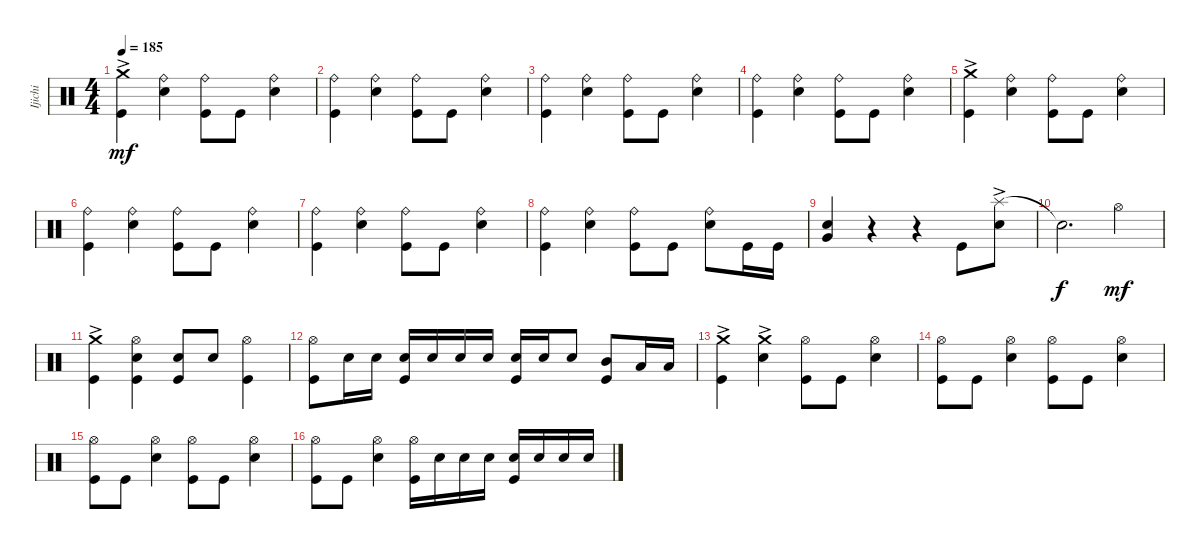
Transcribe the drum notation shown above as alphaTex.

\track ("Ijichi" "Ijichi") {instrument percussion}
\staff {score}
\articulation defaults
\ts (4 4)
\tempo 185
\clef neutral
\ks c
("Crash medium (hit)"{ac} "Kick (hit)").4{dy mf} ("Ride (bell)" "Snare (hit) 2").4 ("Ride (bell)" "Kick (hit)").8 "Kick (hit)".8 ("Ride (bell)" "Snare (hit) 2").4 |
("Ride (bell)" "Kick (hit)").4 ("Ride (bell)" "Snare (hit) 2").4 ("Ride (bell)" "Kick (hit)").8 "Kick (hit)".8 ("Ride (bell)" "Snare (hit) 2").4 |
("Ride (bell)" "Kick (hit)").4 ("Ride (bell)" "Snare (hit) 2").4 ("Ride (bell)" "Kick (hit)").8 "Kick (hit)".8 ("Ride (bell)" "Snare (hit) 2").4 |
("Ride (bell)" "Kick (hit)").4 ("Ride (bell)" "Snare (hit) 2").4 ("Ride (bell)" "Kick (hit)").8 "Kick (hit)".8 ("Ride (bell)" "Snare (hit) 2").4 |
("Crash medium (hit)"{ac} "Kick (hit)").4 ("Ride (bell)" "Snare (hit) 2").4 ("Ride (bell)" "Kick (hit)").8 "Kick (hit)".8 ("Ride (bell)" "Snare (hit) 2").4 |
("Ride (bell)" "Kick (hit)").4 ("Ride (bell)" "Snare (hit) 2").4 ("Ride (bell)" "Kick (hit)").8 "Kick (hit)".8 ("Ride (bell)" "Snare (hit) 2").4 |
("Ride (bell)" "Kick (hit)").4 ("Ride (bell)" "Snare (hit) 2").4 ("Ride (bell)" "Kick (hit)").8 "Kick (hit)".8 ("Ride (bell)" "Snare (hit) 2").4 |
("Ride (bell)" "Kick (hit)").4 ("Ride (bell)" "Snare (hit) 2").4 ("Ride (bell)" "Kick (hit)").8 "Kick (hit)".8 ("Ride (bell)" "Snare (hit) 2").8 "Kick (hit)".16 "Kick (hit)".16 |
("Snare (hit) 2" "Very Low Tom (hit)").4 r.4 r.4 "Kick (hit)".8 ("Splash (hit)"{ac} "Snare (hit) 2").8 |
"Snare (hit)"{t}.2{d dy f} "Hi-Hat (open)".4{dy mf} |
("Crash medium (hit)"{ac} "Kick (hit)").4 ("Hi-Hat (open)" "Snare (hit) 2" "Kick (hit)").4 ("Snare (hit) 2" "Kick (hit)").8 "Snare (hit) 2".8 ("Hi-Hat (open)" "Kick (hit)").4 |
("Hi-Hat (open)" "Kick (hit)").8 "Snare (hit) 2".16 "Snare (hit) 2".16 ("Snare (hit) 2" "Kick (hit)").16 "Snare (hit) 2".16 "Snare (hit) 2".16 "Snare (hit) 2".16 ("Snare (hit) 2" "Kick (hit)").16 "Snare (hit) 2".16 "Snare (hit) 2".8 ("Mid Tom (hit)" "Kick (hit)").8 "Low Tom (hit)".16 "Low Tom (hit)".16 |
("Crash medium (hit)"{ac} "Kick (hit)").4 ("Crash medium (hit)"{ac} "Snare (hit) 2").4 ("Hi-Hat (open)" "Kick (hit)").8 "Kick (hit)".8 ("Hi-Hat (open)" "Snare (hit) 2").4 |
("Hi-Hat (open)" "Kick (hit)").8 "Kick (hit)".8 ("Hi-Hat (open)" "Snare (hit) 2").4 ("Hi-Hat (open)" "Kick (hit)").8 "Kick (hit)".8 ("Hi-Hat (open)" "Snare (hit) 2").4 |
("Hi-Hat (open)" "Kick (hit)").8 "Kick (hit)".8 ("Hi-Hat (open)" "Snare (hit) 2").4 ("Hi-Hat (open)" "Kick (hit)").8 "Kick (hit)".8 ("Hi-Hat (open)" "Snare (hit) 2").4 |
("Hi-Hat (open)" "Kick (hit)").8 "Kick (hit)".8 ("Hi-Hat (open)" "Snare (hit) 2").4 ("Hi-Hat (open)" "Kick (hit)").16 "Snare (hit) 2".16 "Snare (hit) 2".16 "Snare (hit) 2".16 ("Snare (hit) 2" "Kick (hit)").16 "Snare (hit) 2".16 "Snare (hit) 2".16 "Snare (hit) 2".16
